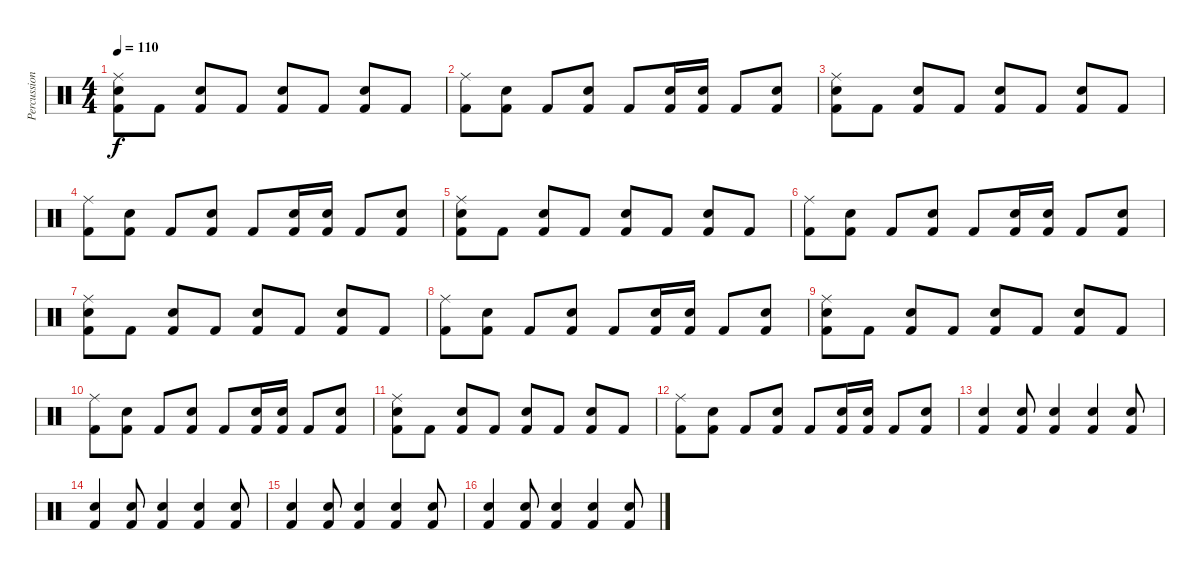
\track ("Percussion" "Percussion") {instrument percussion}
\staff {score}
\articulation defaults
\ts (4 4)
\tempo 110
\clef neutral
\ks c
("Ride (middle)" "Electric Snare (hit)" "Kick (hit) 2").8{dy f} "Kick (hit) 2".8 ("Electric Snare (hit)" "Kick (hit) 2").8 "Kick (hit) 2".8 ("Electric Snare (hit)" "Kick (hit) 2").8 "Kick (hit) 2".8 ("Electric Snare (hit)" "Kick (hit) 2").8 "Kick (hit) 2".8 |
("Ride (middle)" "Kick (hit) 2").8 ("Electric Snare (hit)" "Kick (hit) 2").8 "Kick (hit) 2".8 ("Electric Snare (hit)" "Kick (hit) 2").8 "Kick (hit) 2".8 ("Electric Snare (hit)" "Kick (hit) 2").16 ("Electric Snare (hit)" "Kick (hit) 2").16 "Kick (hit) 2".8 ("Electric Snare (hit)" "Kick (hit) 2").8 |
("Ride (middle)" "Electric Snare (hit)" "Kick (hit) 2").8 "Kick (hit) 2".8 ("Electric Snare (hit)" "Kick (hit) 2").8 "Kick (hit) 2".8 ("Electric Snare (hit)" "Kick (hit) 2").8 "Kick (hit) 2".8 ("Electric Snare (hit)" "Kick (hit) 2").8 "Kick (hit) 2".8 |
("Ride (middle)" "Kick (hit) 2").8 ("Electric Snare (hit)" "Kick (hit) 2").8 "Kick (hit) 2".8 ("Electric Snare (hit)" "Kick (hit) 2").8 "Kick (hit) 2".8 ("Electric Snare (hit)" "Kick (hit) 2").16 ("Electric Snare (hit)" "Kick (hit) 2").16 "Kick (hit) 2".8 ("Electric Snare (hit)" "Kick (hit) 2").8 |
("Ride (middle)" "Electric Snare (hit)" "Kick (hit) 2").8 "Kick (hit) 2".8 ("Electric Snare (hit)" "Kick (hit) 2").8 "Kick (hit) 2".8 ("Electric Snare (hit)" "Kick (hit) 2").8 "Kick (hit) 2".8 ("Electric Snare (hit)" "Kick (hit) 2").8 "Kick (hit) 2".8 |
("Ride (middle)" "Kick (hit) 2").8 ("Electric Snare (hit)" "Kick (hit) 2").8 "Kick (hit) 2".8 ("Electric Snare (hit)" "Kick (hit) 2").8 "Kick (hit) 2".8 ("Electric Snare (hit)" "Kick (hit) 2").16 ("Electric Snare (hit)" "Kick (hit) 2").16 "Kick (hit) 2".8 ("Electric Snare (hit)" "Kick (hit) 2").8 |
("Ride (middle)" "Electric Snare (hit)" "Kick (hit) 2").8 "Kick (hit) 2".8 ("Electric Snare (hit)" "Kick (hit) 2").8 "Kick (hit) 2".8 ("Electric Snare (hit)" "Kick (hit) 2").8 "Kick (hit) 2".8 ("Electric Snare (hit)" "Kick (hit) 2").8 "Kick (hit) 2".8 |
("Ride (middle)" "Kick (hit) 2").8 ("Electric Snare (hit)" "Kick (hit) 2").8 "Kick (hit) 2".8 ("Electric Snare (hit)" "Kick (hit) 2").8 "Kick (hit) 2".8 ("Electric Snare (hit)" "Kick (hit) 2").16 ("Electric Snare (hit)" "Kick (hit) 2").16 "Kick (hit) 2".8 ("Electric Snare (hit)" "Kick (hit) 2").8 |
("Ride (middle)" "Electric Snare (hit)" "Kick (hit) 2").8 "Kick (hit) 2".8 ("Electric Snare (hit)" "Kick (hit) 2").8 "Kick (hit) 2".8 ("Electric Snare (hit)" "Kick (hit) 2").8 "Kick (hit) 2".8 ("Electric Snare (hit)" "Kick (hit) 2").8 "Kick (hit) 2".8 |
("Ride (middle)" "Kick (hit) 2").8 ("Electric Snare (hit)" "Kick (hit) 2").8 "Kick (hit) 2".8 ("Electric Snare (hit)" "Kick (hit) 2").8 "Kick (hit) 2".8 ("Electric Snare (hit)" "Kick (hit) 2").16 ("Electric Snare (hit)" "Kick (hit) 2").16 "Kick (hit) 2".8 ("Electric Snare (hit)" "Kick (hit) 2").8 |
("Ride (middle)" "Electric Snare (hit)" "Kick (hit) 2").8 "Kick (hit) 2".8 ("Electric Snare (hit)" "Kick (hit) 2").8 "Kick (hit) 2".8 ("Electric Snare (hit)" "Kick (hit) 2").8 "Kick (hit) 2".8 ("Electric Snare (hit)" "Kick (hit) 2").8 "Kick (hit) 2".8 |
("Ride (middle)" "Kick (hit) 2").8 ("Electric Snare (hit)" "Kick (hit) 2").8 "Kick (hit) 2".8 ("Electric Snare (hit)" "Kick (hit) 2").8 "Kick (hit) 2".8 ("Electric Snare (hit)" "Kick (hit) 2").16 ("Electric Snare (hit)" "Kick (hit) 2").16 "Kick (hit) 2".8 ("Electric Snare (hit)" "Kick (hit) 2").8 |
("Electric Snare (hit)" "Kick (hit) 2").4 ("Electric Snare (hit)" "Kick (hit) 2").8 ("Electric Snare (hit)" "Kick (hit) 2").4 ("Electric Snare (hit)" "Kick (hit) 2").4 ("Electric Snare (hit)" "Kick (hit) 2").8 |
("Electric Snare (hit)" "Kick (hit) 2").4 ("Electric Snare (hit)" "Kick (hit) 2").8 ("Electric Snare (hit)" "Kick (hit) 2").4 ("Electric Snare (hit)" "Kick (hit) 2").4 ("Electric Snare (hit)" "Kick (hit) 2").8 |
("Electric Snare (hit)" "Kick (hit) 2").4 ("Electric Snare (hit)" "Kick (hit) 2").8 ("Electric Snare (hit)" "Kick (hit) 2").4 ("Electric Snare (hit)" "Kick (hit) 2").4 ("Electric Snare (hit)" "Kick (hit) 2").8 |
("Electric Snare (hit)" "Kick (hit) 2").4 ("Electric Snare (hit)" "Kick (hit) 2").8 ("Electric Snare (hit)" "Kick (hit) 2").4 ("Electric Snare (hit)" "Kick (hit) 2").4 ("Electric Snare (hit)" "Kick (hit) 2").8
